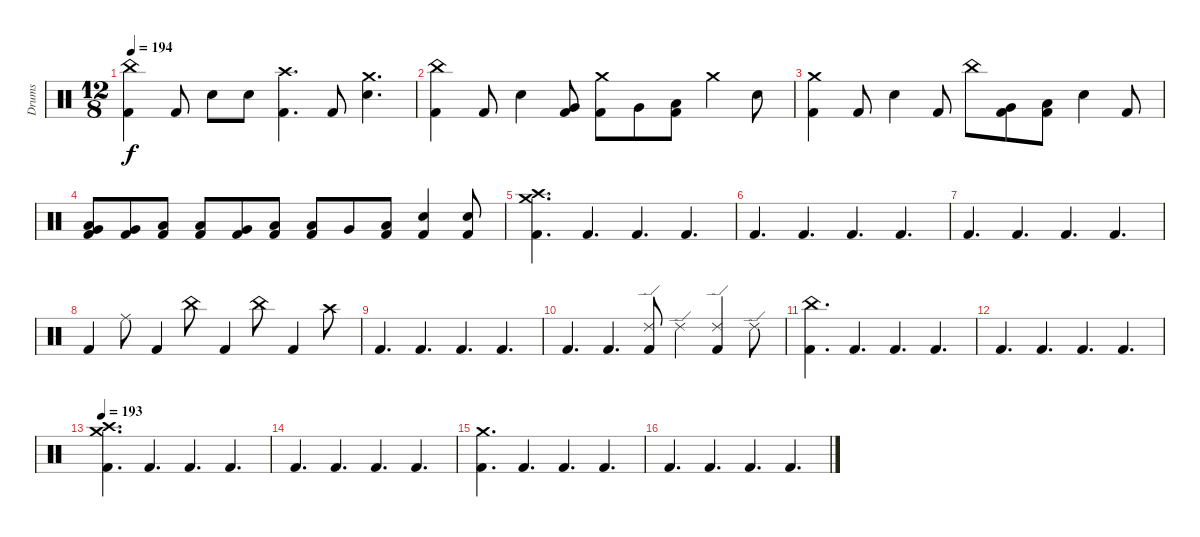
\track ("Drums" "Drums") {instrument percussion}
\staff {score}
\articulation defaults
\ts (12 8)
\tempo 194
\clef neutral
\ks c
("China (hit)" "Kick (hit) 2").4{dy f} "Kick (hit) 2".8 "Electric Snare (hit)".8 "Electric Snare (hit)".8 ("Crash high (hit)" "Kick (hit) 2").4{d} "Kick (hit) 2".8 ("Crash medium (hit)" "Electric Snare (hit)").4{d} |
("China (hit)" "Kick (hit) 2").4 "Kick (hit) 2".8 "Electric Snare (hit)".4 ("Very Low Tom (hit)" "Kick (hit) 2").8 ("Crash medium (hit)" "Kick (hit) 2").8 "Very Low Tom (hit)".8 ("Low Floor Tom (hit)" "Kick (hit) 2").8 "Crash medium (hit)".4 "Electric Snare (hit)".8 |
("Crash medium (hit)" "Kick (hit) 2").4 "Kick (hit) 2".8 "Electric Snare (hit)".4 "Kick (hit) 2".8 "China (hit)".8 ("Very Low Tom (hit)" "Kick (hit) 2").8 ("Low Floor Tom (hit)" "Kick (hit) 2").8 "Electric Snare (hit)".4 "Kick (hit) 2".8 |
("Low Tom (hit)" "Very Low Tom (hit)" "Kick (hit) 2").8 ("Very Low Tom (hit)" "Kick (hit) 2").8 ("Low Floor Tom (hit)" "Kick (hit) 2").8 ("Low Tom (hit)" "Kick (hit) 2").8 ("Very Low Tom (hit)" "Kick (hit) 2").8 ("Low Floor Tom (hit)" "Kick (hit) 2").8 ("Low Tom (hit)" "Kick (hit) 2").8 "Very Low Tom (hit)".8 ("Low Floor Tom (hit)" "Kick (hit) 2").8 ("Electric Snare (hit)" "Kick (hit) 2").4 ("Electric Snare (hit)" "Kick (hit) 2").8 |
("Crash medium (hit)" "Crash high (hit)" "Kick (hit) 2").4{d} "Kick (hit) 2".4{d} "Kick (hit) 2".4{d} "Kick (hit) 2".4{d} |
"Kick (hit) 2".4{d} "Kick (hit) 2".4{d} "Kick (hit) 2".4{d} "Kick (hit) 2".4{d} |
"Kick (hit) 2".4{d} "Kick (hit) 2".4{d} "Kick (hit) 2".4{d} "Kick (hit) 2".4{d} |
"Kick (hit) 2".4 "Ride (middle)".8 "Kick (hit) 2".4 "China (hit)".8 "Kick (hit) 2".4 "China (hit)".8 "Kick (hit) 2".4 "Crash high (hit)".8 |
"Kick (hit) 2".4{d} "Kick (hit) 2".4{d} "Kick (hit) 2".4{d} "Kick (hit) 2".4{d} |
"Kick (hit) 2".4{d} "Kick (hit) 2".4{d} ("Ride (edge) 2" "Kick (hit) 2").8 "Ride (edge) 2".4 ("Ride (edge) 2" "Kick (hit) 2").4 "Ride (edge) 2".8 |
("China (hit)" "Kick (hit) 2").4{d} "Kick (hit) 2".4{d} "Kick (hit) 2".4{d} "Kick (hit) 2".4{d} |
"Kick (hit) 2".4{d} "Kick (hit) 2".4{d} "Kick (hit) 2".4{d} "Kick (hit) 2".4{d} |
\tempo 193
("Crash medium (hit)" "Crash high (hit)" "Kick (hit) 2").4{d} "Kick (hit) 2".4{d} "Kick (hit) 2".4{d} "Kick (hit) 2".4{d} |
"Kick (hit) 2".4{d} "Kick (hit) 2".4{d} "Kick (hit) 2".4{d} "Kick (hit) 2".4{d} |
("Crash medium (hit)" "Kick (hit) 2").4{d} "Kick (hit) 2".4{d} "Kick (hit) 2".4{d} "Kick (hit) 2".4{d} |
"Kick (hit) 2".4{d} "Kick (hit) 2".4{d} "Kick (hit) 2".4{d} "Kick (hit) 2".4{d}
